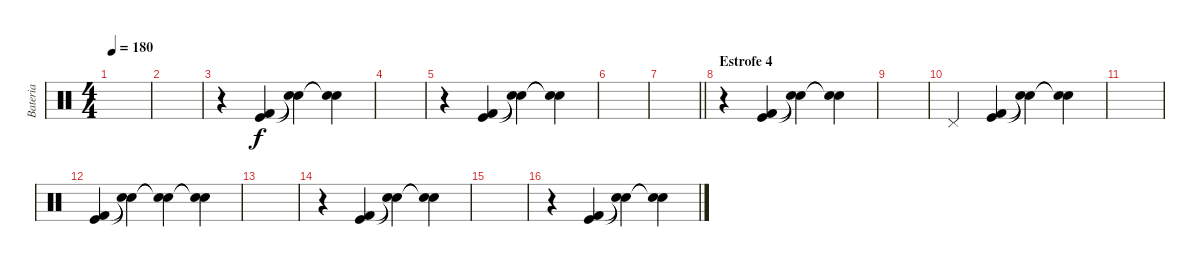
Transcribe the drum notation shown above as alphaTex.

\track ("Bateria" "Bateria") {instrument percussion}
\staff {score}
\articulation defaults
\ts (4 4)
\tempo 180
\clef neutral
\ks c
|
|
r.4 ("Kick (hit) 2" "Kick (hit)").4 ("Snare (hit)"{t} "Snare (hit)"{t}).4 ("Snare (hit)"{t} "Snare (hit)"{t}).4 |
|
r.4 ("Kick (hit) 2" "Kick (hit)").4 ("Snare (hit)"{t} "Snare (hit)"{t}).4 ("Snare (hit)"{t} "Snare (hit)"{t}).4 |
|
\barLineRight lightlight
|
\section ("" "Estrofe 4")
r.4 ("Kick (hit) 2" "Kick (hit)").4 ("Snare (hit)"{t} "Snare (hit)"{t}).4 ("Snare (hit)"{t} "Snare (hit)"{t}).4 |
|
"Pedal Hi-Hat (hit)".4 ("Kick (hit) 2" "Kick (hit)").4 ("Snare (hit)"{t} "Snare (hit)"{t}).4 ("Snare (hit)"{t} "Snare (hit)"{t}).4 |
|
("Kick (hit)" "Kick (hit) 2").4 ("Snare (hit)"{t} "Snare (hit)"{t}).4 ("Snare (hit)"{t} "Snare (hit)"{t}).4 ("Snare (hit)"{t} "Snare (hit)"{t}).4 |
|
r.4 ("Kick (hit) 2" "Kick (hit)").4 ("Snare (hit)"{t} "Snare (hit)"{t}).4 ("Snare (hit)"{t} "Snare (hit)"{t}).4 |
|
r.4 ("Kick (hit) 2" "Kick (hit)").4 ("Snare (hit)"{t} "Snare (hit)"{t}).4 ("Snare (hit)"{t} "Snare (hit)"{t}).4
